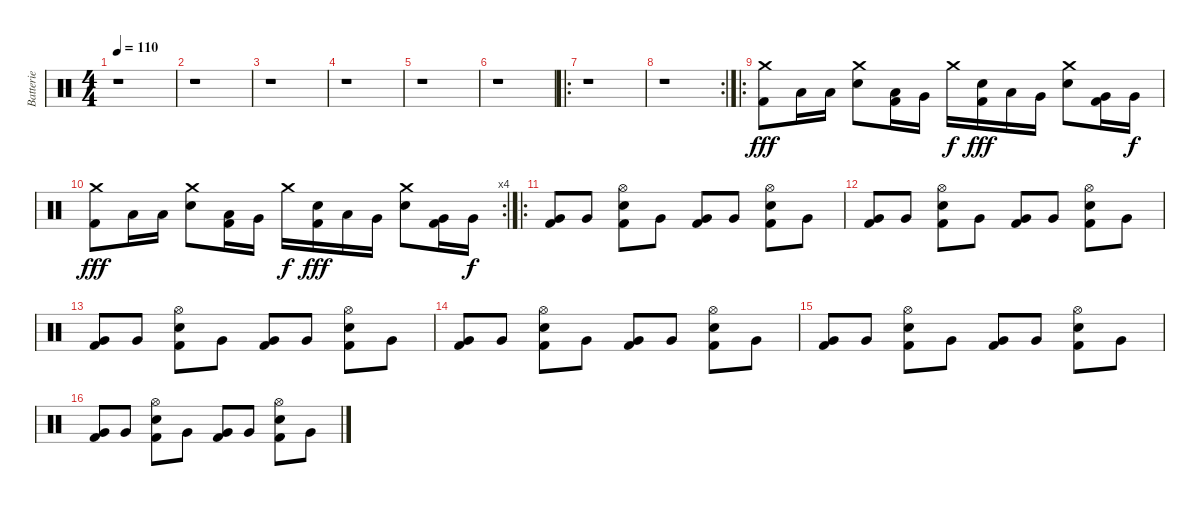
\track ("Batterie" "Batterie") {instrument percussion}
\staff {score}
\articulation defaults
\ts (4 4)
\tempo 110
\clef neutral
\ks c
r.1{dy f} |
r.1 |
r.1 |
r.1 |
r.1 |
r.1 |
\ro
r.1 |
\rc 2
r.1 |
\ro
("Crash medium (hit)" "Kick (hit) 2").8{dy fff} "Low Tom (hit)".16 "Low Tom (hit)".16 ("Crash medium (hit)" "Snare (hit) 2").8 ("Low Tom (hit)" "Kick (hit) 2").16 "Very Low Tom (hit)".16 "Crash medium (hit)".16{dy f} ("Snare (hit) 2" "Kick (hit) 2").16{dy fff} "Low Tom (hit)".16 "Very Low Tom (hit)".16 ("Crash medium (hit)" "Snare (hit) 2").8 ("Very Low Tom (hit)" "Kick (hit) 2").16 "Very Low Tom (hit)".16{dy f} |
\rc 4
("Crash medium (hit)" "Kick (hit) 2").8{dy fff} "Low Tom (hit)".16 "Low Tom (hit)".16 ("Crash medium (hit)" "Snare (hit) 2").8 ("Low Tom (hit)" "Kick (hit) 2").16 "Very Low Tom (hit)".16 "Crash medium (hit)".16{dy f} ("Snare (hit) 2" "Kick (hit) 2").16{dy fff} "Low Tom (hit)".16 "Very Low Tom (hit)".16 ("Crash medium (hit)" "Snare (hit) 2").8 ("Very Low Tom (hit)" "Kick (hit) 2").16 "Very Low Tom (hit)".16{dy f} |
\ro
("Very Low Tom (hit)" "Kick (hit) 2").8 "Very Low Tom (hit)".8 ("Hi-Hat (open)" "Snare (hit) 2" "Kick (hit) 2").8 "Very Low Tom (hit)".8 ("Very Low Tom (hit)" "Kick (hit) 2").8 "Very Low Tom (hit)".8 ("Hi-Hat (open)" "Snare (hit) 2" "Kick (hit) 2").8 "Very Low Tom (hit)".8 |
("Very Low Tom (hit)" "Kick (hit) 2").8 "Very Low Tom (hit)".8 ("Hi-Hat (open)" "Snare (hit) 2" "Kick (hit) 2").8 "Very Low Tom (hit)".8 ("Very Low Tom (hit)" "Kick (hit) 2").8 "Very Low Tom (hit)".8 ("Hi-Hat (open)" "Snare (hit) 2" "Kick (hit) 2").8 "Very Low Tom (hit)".8 |
("Very Low Tom (hit)" "Kick (hit) 2").8 "Very Low Tom (hit)".8 ("Hi-Hat (open)" "Snare (hit) 2" "Kick (hit) 2").8 "Very Low Tom (hit)".8 ("Very Low Tom (hit)" "Kick (hit) 2").8 "Very Low Tom (hit)".8 ("Hi-Hat (open)" "Snare (hit) 2" "Kick (hit) 2").8 "Very Low Tom (hit)".8 |
("Very Low Tom (hit)" "Kick (hit) 2").8 "Very Low Tom (hit)".8 ("Hi-Hat (open)" "Snare (hit) 2" "Kick (hit) 2").8 "Very Low Tom (hit)".8 ("Very Low Tom (hit)" "Kick (hit) 2").8 "Very Low Tom (hit)".8 ("Hi-Hat (open)" "Snare (hit) 2" "Kick (hit) 2").8 "Very Low Tom (hit)".8 |
("Very Low Tom (hit)" "Kick (hit) 2").8 "Very Low Tom (hit)".8 ("Hi-Hat (open)" "Snare (hit) 2" "Kick (hit) 2").8 "Very Low Tom (hit)".8 ("Very Low Tom (hit)" "Kick (hit) 2").8 "Very Low Tom (hit)".8 ("Hi-Hat (open)" "Snare (hit) 2" "Kick (hit) 2").8 "Very Low Tom (hit)".8 |
("Very Low Tom (hit)" "Kick (hit) 2").8 "Very Low Tom (hit)".8 ("Hi-Hat (open)" "Snare (hit) 2" "Kick (hit) 2").8 "Very Low Tom (hit)".8 ("Very Low Tom (hit)" "Kick (hit) 2").8 "Very Low Tom (hit)".8 ("Hi-Hat (open)" "Snare (hit) 2" "Kick (hit) 2").8 "Very Low Tom (hit)".8
